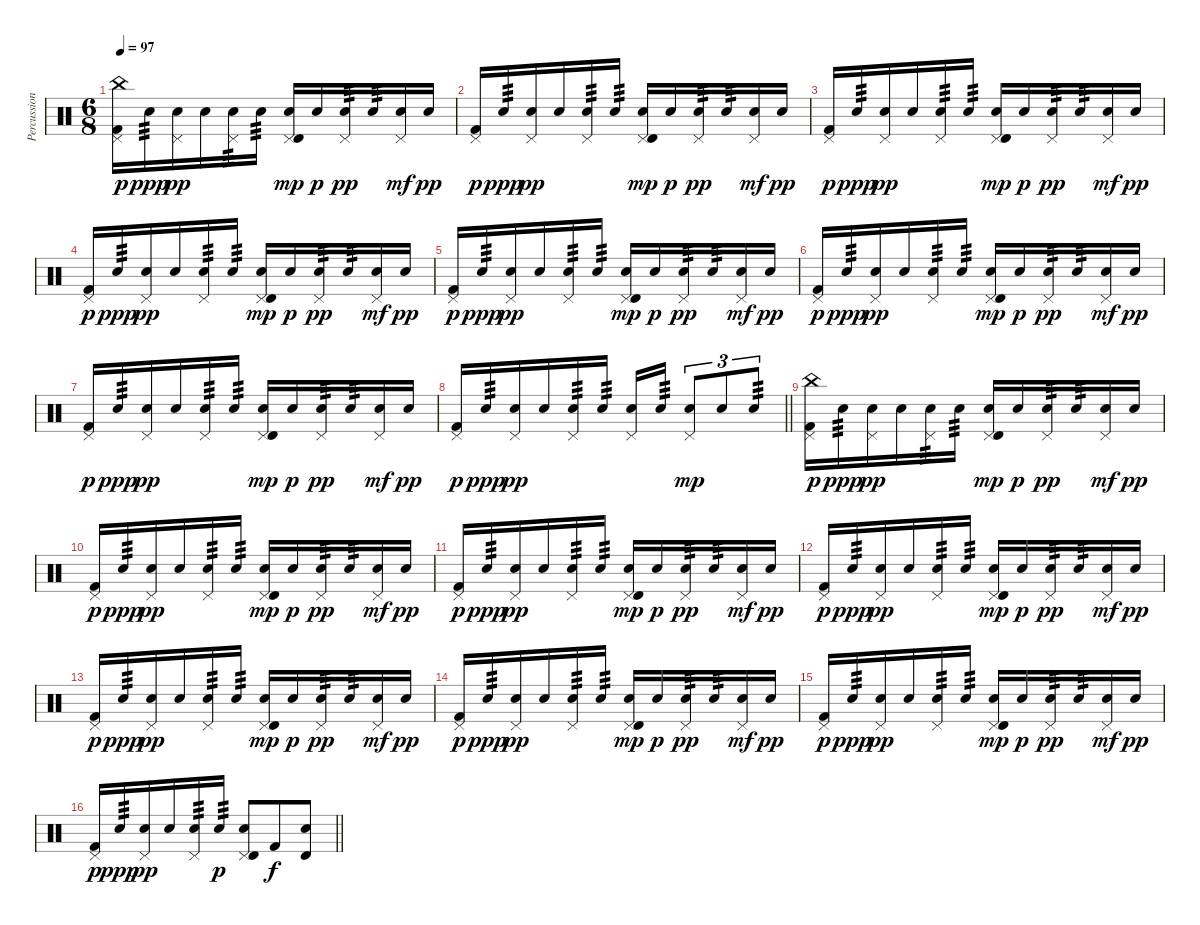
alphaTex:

\track ("Percussion" "Percussion") {instrument percussion}
\staff {score}
\articulation defaults
\ts (6 8)
\tempo 97
\clef neutral
\ks c
("China (hit)" "Pedal Hi-Hat (hit)" "Kick (hit) 2").16{dy p} "Electric Snare (hit)".16{tp 3 dy ppp} ("Pedal Hi-Hat (hit)" "Electric Snare (hit)").16{dy pp} "Electric Snare (hit)".16 ("Pedal Hi-Hat (hit)" "Electric Snare (hit)").16{tp 3} "Electric Snare (hit)".16{tp 3} ("Pedal Hi-Hat (hit)" "Timbale high (hit)" "Electric Snare (hit)").16{dy mp} "Electric Snare (hit)".16{dy p} ("Pedal Hi-Hat (hit)" "Electric Snare (hit)").16{tp 3 dy pp} "Electric Snare (hit)".16{tp 3} ("Pedal Hi-Hat (hit)" "Electric Snare (hit)").16{dy mf} "Electric Snare (hit)".16{dy pp} |
("Pedal Hi-Hat (hit)" "Kick (hit) 2").16{dy p} "Electric Snare (hit)".16{tp 3 dy ppp} ("Pedal Hi-Hat (hit)" "Electric Snare (hit)").16{dy pp} "Electric Snare (hit)".16 ("Pedal Hi-Hat (hit)" "Electric Snare (hit)").16{tp 3} "Electric Snare (hit)".16{tp 3} ("Pedal Hi-Hat (hit)" "Timbale high (hit)" "Electric Snare (hit)").16{dy mp} "Electric Snare (hit)".16{dy p} ("Pedal Hi-Hat (hit)" "Electric Snare (hit)").16{tp 3 dy pp} "Electric Snare (hit)".16{tp 3} ("Pedal Hi-Hat (hit)" "Electric Snare (hit)").16{dy mf} "Electric Snare (hit)".16{dy pp} |
("Pedal Hi-Hat (hit)" "Kick (hit) 2").16{dy p} "Electric Snare (hit)".16{tp 3 dy ppp} ("Pedal Hi-Hat (hit)" "Electric Snare (hit)").16{dy pp} "Electric Snare (hit)".16 ("Pedal Hi-Hat (hit)" "Electric Snare (hit)").16{tp 3} "Electric Snare (hit)".16{tp 3} ("Pedal Hi-Hat (hit)" "Timbale high (hit)" "Electric Snare (hit)").16{dy mp} "Electric Snare (hit)".16{dy p} ("Pedal Hi-Hat (hit)" "Electric Snare (hit)").16{tp 3 dy pp} "Electric Snare (hit)".16{tp 3} ("Pedal Hi-Hat (hit)" "Electric Snare (hit)").16{dy mf} "Electric Snare (hit)".16{dy pp} |
("Pedal Hi-Hat (hit)" "Kick (hit) 2").16{dy p} "Electric Snare (hit)".16{tp 3 dy ppp} ("Pedal Hi-Hat (hit)" "Electric Snare (hit)").16{dy pp} "Electric Snare (hit)".16 ("Pedal Hi-Hat (hit)" "Electric Snare (hit)").16{tp 3} "Electric Snare (hit)".16{tp 3} ("Pedal Hi-Hat (hit)" "Timbale high (hit)" "Electric Snare (hit)").16{dy mp} "Electric Snare (hit)".16{dy p} ("Pedal Hi-Hat (hit)" "Electric Snare (hit)").16{tp 3 dy pp} "Electric Snare (hit)".16{tp 3} ("Pedal Hi-Hat (hit)" "Electric Snare (hit)").16{dy mf} "Electric Snare (hit)".16{dy pp} |
("Pedal Hi-Hat (hit)" "Kick (hit) 2").16{dy p} "Electric Snare (hit)".16{tp 3 dy ppp} ("Pedal Hi-Hat (hit)" "Electric Snare (hit)").16{dy pp} "Electric Snare (hit)".16 ("Pedal Hi-Hat (hit)" "Electric Snare (hit)").16{tp 3} "Electric Snare (hit)".16{tp 3} ("Pedal Hi-Hat (hit)" "Timbale high (hit)" "Electric Snare (hit)").16{dy mp} "Electric Snare (hit)".16{dy p} ("Pedal Hi-Hat (hit)" "Electric Snare (hit)").16{tp 3 dy pp} "Electric Snare (hit)".16{tp 3} ("Pedal Hi-Hat (hit)" "Electric Snare (hit)").16{dy mf} "Electric Snare (hit)".16{dy pp} |
("Pedal Hi-Hat (hit)" "Kick (hit) 2").16{dy p} "Electric Snare (hit)".16{tp 3 dy ppp} ("Pedal Hi-Hat (hit)" "Electric Snare (hit)").16{dy pp} "Electric Snare (hit)".16 ("Pedal Hi-Hat (hit)" "Electric Snare (hit)").16{tp 3} "Electric Snare (hit)".16{tp 3} ("Pedal Hi-Hat (hit)" "Timbale high (hit)" "Electric Snare (hit)").16{dy mp} "Electric Snare (hit)".16{dy p} ("Pedal Hi-Hat (hit)" "Electric Snare (hit)").16{tp 3 dy pp} "Electric Snare (hit)".16{tp 3} ("Pedal Hi-Hat (hit)" "Electric Snare (hit)").16{dy mf} "Electric Snare (hit)".16{dy pp} |
("Pedal Hi-Hat (hit)" "Kick (hit) 2").16{dy p} "Electric Snare (hit)".16{tp 3 dy ppp} ("Pedal Hi-Hat (hit)" "Electric Snare (hit)").16{dy pp} "Electric Snare (hit)".16 ("Pedal Hi-Hat (hit)" "Electric Snare (hit)").16{tp 3} "Electric Snare (hit)".16{tp 3} ("Pedal Hi-Hat (hit)" "Timbale high (hit)" "Electric Snare (hit)").16{dy mp} "Electric Snare (hit)".16{dy p} ("Pedal Hi-Hat (hit)" "Electric Snare (hit)").16{tp 3 dy pp} "Electric Snare (hit)".16{tp 3} ("Pedal Hi-Hat (hit)" "Electric Snare (hit)").16{dy mf} "Electric Snare (hit)".16{dy pp} |
\barLineRight lightlight
("Pedal Hi-Hat (hit)" "Kick (hit) 2").16{dy p} "Electric Snare (hit)".16{tp 3 dy ppp} ("Pedal Hi-Hat (hit)" "Electric Snare (hit)").16{dy pp} "Electric Snare (hit)".16 ("Pedal Hi-Hat (hit)" "Electric Snare (hit)").16{tp 3} "Electric Snare (hit)".16{tp 3} ("Pedal Hi-Hat (hit)" "Electric Snare (hit)").16 "Electric Snare (hit)".16{tp 3} ("Pedal Hi-Hat (hit)" "Electric Snare (hit)").8{tu (3 2) dy mp} "Electric Snare (hit)".8{tu (3 2)} "Electric Snare (hit)".8{tu (3 2) tp 3} |
("China (hit)" "Pedal Hi-Hat (hit)" "Kick (hit) 2").16{dy p} "Electric Snare (hit)".16{tp 3 dy ppp} ("Pedal Hi-Hat (hit)" "Electric Snare (hit)").16{dy pp} "Electric Snare (hit)".16 ("Pedal Hi-Hat (hit)" "Electric Snare (hit)").16{tp 3} "Electric Snare (hit)".16{tp 3} ("Pedal Hi-Hat (hit)" "Timbale high (hit)" "Electric Snare (hit)").16{dy mp} "Electric Snare (hit)".16{dy p} ("Pedal Hi-Hat (hit)" "Electric Snare (hit)").16{tp 3 dy pp} "Electric Snare (hit)".16{tp 3} ("Pedal Hi-Hat (hit)" "Electric Snare (hit)").16{dy mf} "Electric Snare (hit)".16{dy pp} |
("Pedal Hi-Hat (hit)" "Kick (hit) 2").16{dy p} "Electric Snare (hit)".16{tp 3 dy ppp} ("Pedal Hi-Hat (hit)" "Electric Snare (hit)").16{dy pp} "Electric Snare (hit)".16 ("Pedal Hi-Hat (hit)" "Electric Snare (hit)").16{tp 3} "Electric Snare (hit)".16{tp 3} ("Pedal Hi-Hat (hit)" "Timbale high (hit)" "Electric Snare (hit)").16{dy mp} "Electric Snare (hit)".16{dy p} ("Pedal Hi-Hat (hit)" "Electric Snare (hit)").16{tp 3 dy pp} "Electric Snare (hit)".16{tp 3} ("Pedal Hi-Hat (hit)" "Electric Snare (hit)").16{dy mf} "Electric Snare (hit)".16{dy pp} |
("Pedal Hi-Hat (hit)" "Kick (hit) 2").16{dy p} "Electric Snare (hit)".16{tp 3 dy ppp} ("Pedal Hi-Hat (hit)" "Electric Snare (hit)").16{dy pp} "Electric Snare (hit)".16 ("Pedal Hi-Hat (hit)" "Electric Snare (hit)").16{tp 3} "Electric Snare (hit)".16{tp 3} ("Pedal Hi-Hat (hit)" "Timbale high (hit)" "Electric Snare (hit)").16{dy mp} "Electric Snare (hit)".16{dy p} ("Pedal Hi-Hat (hit)" "Electric Snare (hit)").16{tp 3 dy pp} "Electric Snare (hit)".16{tp 3} ("Pedal Hi-Hat (hit)" "Electric Snare (hit)").16{dy mf} "Electric Snare (hit)".16{dy pp} |
("Pedal Hi-Hat (hit)" "Kick (hit) 2").16{dy p} "Electric Snare (hit)".16{tp 3 dy ppp} ("Pedal Hi-Hat (hit)" "Electric Snare (hit)").16{dy pp} "Electric Snare (hit)".16 ("Pedal Hi-Hat (hit)" "Electric Snare (hit)").16{tp 3} "Electric Snare (hit)".16{tp 3} ("Pedal Hi-Hat (hit)" "Timbale high (hit)" "Electric Snare (hit)").16{dy mp} "Electric Snare (hit)".16{dy p} ("Pedal Hi-Hat (hit)" "Electric Snare (hit)").16{tp 3 dy pp} "Electric Snare (hit)".16{tp 3} ("Pedal Hi-Hat (hit)" "Electric Snare (hit)").16{dy mf} "Electric Snare (hit)".16{dy pp} |
("Pedal Hi-Hat (hit)" "Kick (hit) 2").16{dy p} "Electric Snare (hit)".16{tp 3 dy ppp} ("Pedal Hi-Hat (hit)" "Electric Snare (hit)").16{dy pp} "Electric Snare (hit)".16 ("Pedal Hi-Hat (hit)" "Electric Snare (hit)").16{tp 3} "Electric Snare (hit)".16{tp 3} ("Pedal Hi-Hat (hit)" "Timbale high (hit)" "Electric Snare (hit)").16{dy mp} "Electric Snare (hit)".16{dy p} ("Pedal Hi-Hat (hit)" "Electric Snare (hit)").16{tp 3 dy pp} "Electric Snare (hit)".16{tp 3} ("Pedal Hi-Hat (hit)" "Electric Snare (hit)").16{dy mf} "Electric Snare (hit)".16{dy pp} |
("Pedal Hi-Hat (hit)" "Kick (hit) 2").16{dy p} "Electric Snare (hit)".16{tp 3 dy ppp} ("Pedal Hi-Hat (hit)" "Electric Snare (hit)").16{dy pp} "Electric Snare (hit)".16 ("Pedal Hi-Hat (hit)" "Electric Snare (hit)").16{tp 3} "Electric Snare (hit)".16{tp 3} ("Pedal Hi-Hat (hit)" "Timbale high (hit)" "Electric Snare (hit)").16{dy mp} "Electric Snare (hit)".16{dy p} ("Pedal Hi-Hat (hit)" "Electric Snare (hit)").16{tp 3 dy pp} "Electric Snare (hit)".16{tp 3} ("Pedal Hi-Hat (hit)" "Electric Snare (hit)").16{dy mf} "Electric Snare (hit)".16{dy pp} |
("Pedal Hi-Hat (hit)" "Kick (hit) 2").16{dy p} "Electric Snare (hit)".16{tp 3 dy ppp} ("Pedal Hi-Hat (hit)" "Electric Snare (hit)").16{dy pp} "Electric Snare (hit)".16 ("Pedal Hi-Hat (hit)" "Electric Snare (hit)").16{tp 3} "Electric Snare (hit)".16{tp 3} ("Pedal Hi-Hat (hit)" "Timbale high (hit)" "Electric Snare (hit)").16{dy mp} "Electric Snare (hit)".16{dy p} ("Pedal Hi-Hat (hit)" "Electric Snare (hit)").16{tp 3 dy pp} "Electric Snare (hit)".16{tp 3} ("Pedal Hi-Hat (hit)" "Electric Snare (hit)").16{dy mf} "Electric Snare (hit)".16{dy pp} |
\barLineRight lightlight
("Pedal Hi-Hat (hit)" "Kick (hit) 2").16{dy p} "Electric Snare (hit)".16{tp 3 dy ppp} ("Pedal Hi-Hat (hit)" "Electric Snare (hit)").16{dy pp} "Electric Snare (hit)".16 ("Pedal Hi-Hat (hit)" "Electric Snare (hit)").16{tp 3} "Electric Snare (hit)".16{tp 3 dy p} ("Pedal Hi-Hat (hit)" "Timbale high (hit)" "Electric Snare (hit)").8 "Kick (hit) 2".8{dy f} ("Timbale high (hit)" "Electric Snare (hit)").8
